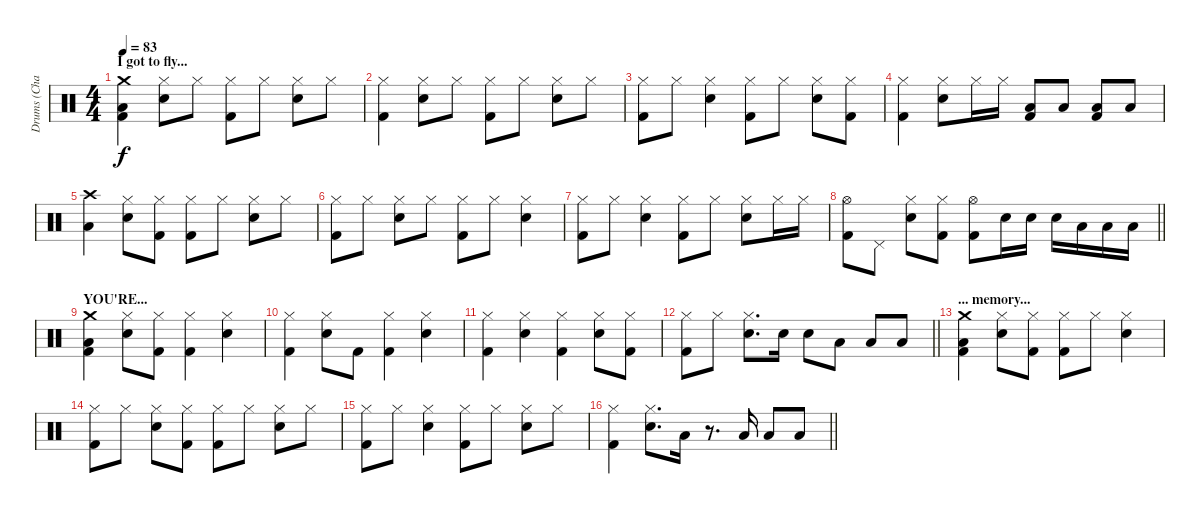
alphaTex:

\track ("Drums (Charlie)" "Drums (Cha") {instrument percussion}
\staff {score}
\articulation defaults
\ts (4 4)
\section ("" "I got to fly...")
\tempo 83
\clef neutral
\ks c
("Crash medium (hit)" "Low Floor Tom (hit)" "Kick (hit) 2").4{dy f} ("Hi-Hat (closed)" "Snare (hit) 2").8 "Hi-Hat (closed)".8 ("Hi-Hat (closed)" "Kick (hit) 2").8 "Hi-Hat (closed)".8 ("Hi-Hat (closed)" "Snare (hit) 2").8 "Hi-Hat (closed)".8 |
("Hi-Hat (closed)" "Kick (hit) 2").4 ("Hi-Hat (closed)" "Snare (hit) 2").8 "Hi-Hat (closed)".8 ("Hi-Hat (closed)" "Kick (hit) 2").8 "Hi-Hat (closed)".8 ("Hi-Hat (closed)" "Snare (hit) 2").8 "Hi-Hat (closed)".8 |
("Hi-Hat (closed)" "Kick (hit) 2").8 "Hi-Hat (closed)".8 ("Hi-Hat (closed)" "Snare (hit) 2").4 ("Hi-Hat (closed)" "Kick (hit) 2").8 "Hi-Hat (closed)".8 ("Hi-Hat (closed)" "Snare (hit) 2").8 ("Hi-Hat (closed)" "Kick (hit) 2").8 |
("Hi-Hat (closed)" "Kick (hit) 2").4 ("Hi-Hat (closed)" "Snare (hit) 2").8 "Hi-Hat (closed)".16 "Hi-Hat (closed)".16 ("Low Floor Tom (hit)" "Kick (hit) 2").8 "Low Floor Tom (hit)".8 ("Low Tom (hit)" "Kick (hit) 2").8 "Low Tom (hit)".8 |
("Crash high (hit)" "Low Floor Tom (hit)").4 ("Hi-Hat (closed)" "Snare (hit) 2").8 ("Hi-Hat (closed)" "Kick (hit) 2").8 ("Hi-Hat (closed)" "Kick (hit) 2").8 "Hi-Hat (closed)".8 ("Hi-Hat (closed)" "Snare (hit) 2").8 "Hi-Hat (closed)".8 |
("Hi-Hat (closed)" "Kick (hit) 2").8 "Hi-Hat (closed)".8 ("Hi-Hat (closed)" "Snare (hit) 2").8 "Hi-Hat (closed)".8 ("Hi-Hat (closed)" "Kick (hit) 2").8 "Hi-Hat (closed)".8 ("Hi-Hat (closed)" "Snare (hit) 2").4 |
("Hi-Hat (closed)" "Kick (hit) 2").8 "Hi-Hat (closed)".8 ("Hi-Hat (closed)" "Snare (hit) 2").4 ("Hi-Hat (closed)" "Kick (hit) 2").8 "Hi-Hat (closed)".8 ("Hi-Hat (closed)" "Snare (hit) 2").8 "Hi-Hat (closed)".16 "Hi-Hat (closed)".16 |
\barLineRight lightlight
("Hi-Hat (open)" "Kick (hit) 2").8 "Pedal Hi-Hat (hit)".8 ("Hi-Hat (closed)" "Snare (hit) 2").8 ("Hi-Hat (closed)" "Kick (hit) 2").8 ("Hi-Hat (open)" "Kick (hit) 2").8 "Snare (hit) 2".16 "Snare (hit) 2".16 "Snare (hit) 2".16 "Low Tom (hit)".16 "Low Tom (hit)".16 "Low Floor Tom (hit)".16 |
\section ("" "YOU'RE...")
("Crash medium (hit)" "Low Floor Tom (hit)" "Kick (hit) 2").4 ("Hi-Hat (closed)" "Snare (hit) 2").8 ("Hi-Hat (closed)" "Kick (hit) 2").8 ("Hi-Hat (closed)" "Kick (hit) 2").4 ("Hi-Hat (closed)" "Snare (hit) 2").4 |
("Hi-Hat (closed)" "Kick (hit) 2").4 ("Hi-Hat (closed)" "Snare (hit) 2").8 "Kick (hit) 2".8 ("Hi-Hat (closed)" "Kick (hit) 2").4 ("Hi-Hat (closed)" "Snare (hit) 2").4 |
("Hi-Hat (closed)" "Kick (hit) 2").4 ("Hi-Hat (closed)" "Snare (hit) 2").4 ("Hi-Hat (closed)" "Kick (hit) 2").4 ("Hi-Hat (closed)" "Snare (hit) 2").8 ("Hi-Hat (closed)" "Kick (hit) 2").8 |
\barLineRight lightlight
("Hi-Hat (closed)" "Kick (hit) 2").8 "Hi-Hat (closed)".8 ("Hi-Hat (closed)" "Snare (hit) 2").8{d} "Snare (hit) 2".16 "Snare (hit) 2".8 "Low Floor Tom (hit)".8 "Low Tom (hit)".8 "Low Floor Tom (hit)".8 |
\section ("" "... memory...")
("Crash medium (hit)" "Low Floor Tom (hit)" "Kick (hit) 2").4 ("Hi-Hat (closed)" "Snare (hit) 2").8 ("Hi-Hat (closed)" "Kick (hit) 2").8 ("Hi-Hat (closed)" "Kick (hit) 2").8 "Hi-Hat (closed)".8 ("Hi-Hat (closed)" "Snare (hit) 2").4 |
("Hi-Hat (closed)" "Kick (hit) 2").8 "Hi-Hat (closed)".8 ("Hi-Hat (closed)" "Snare (hit) 2").8 ("Hi-Hat (closed)" "Kick (hit) 2").8 ("Hi-Hat (closed)" "Kick (hit) 2").8 "Hi-Hat (closed)".8 ("Hi-Hat (closed)" "Snare (hit) 2").8 "Hi-Hat (closed)".8 |
("Hi-Hat (closed)" "Kick (hit) 2").8 "Hi-Hat (closed)".8 ("Hi-Hat (closed)" "Snare (hit) 2").4 ("Hi-Hat (closed)" "Kick (hit) 2").8 "Hi-Hat (closed)".8 ("Hi-Hat (closed)" "Snare (hit) 2").8 "Hi-Hat (closed)".8 |
\barLineRight lightlight
("Hi-Hat (closed)" "Kick (hit) 2").4 ("Hi-Hat (closed)" "Snare (hit) 2").8{d} "Low Tom (hit)".16 r.8{d} "Low Tom (hit)".16 "Low Floor Tom (hit)".8 "Low Tom (hit)".8
